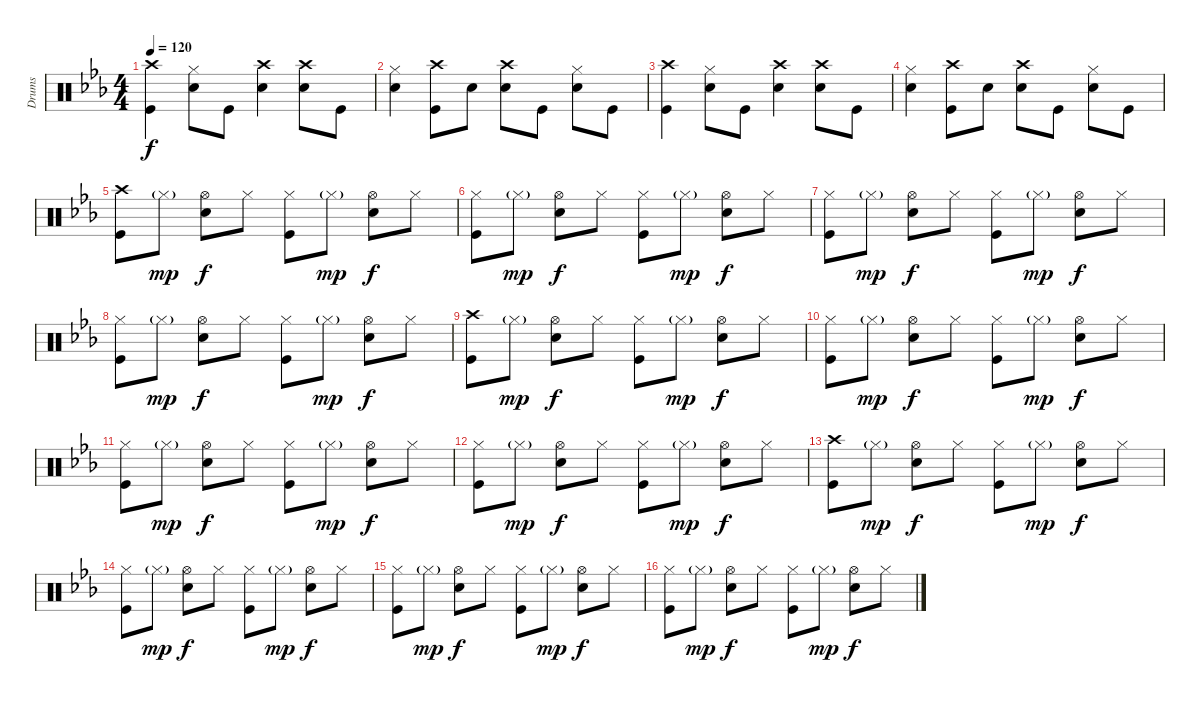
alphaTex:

\track ("Drums" "Drums") {instrument percussion}
\staff {score}
\articulation defaults
\ts (4 4)
\tempo 120
\clef neutral
\ks eb
("Crash high (hit)" "Kick (hit)").4{dy f} ("Hi-Hat (closed)" "Electric Snare (hit)").8 "Kick (hit)".8 ("Crash high (hit)" "Electric Snare (hit)").4 ("Crash high (hit)" "Electric Snare (hit)").8 "Kick (hit)".8 |
("Hi-Hat (closed)" "Electric Snare (hit)").4 ("Crash high (hit)" "Kick (hit)").8 "Electric Snare (hit)".8 ("Crash high (hit)" "Electric Snare (hit)").8 "Kick (hit)".8 ("Hi-Hat (closed)" "Electric Snare (hit)").8 "Kick (hit)".8 |
("Crash high (hit)" "Kick (hit)").4 ("Hi-Hat (closed)" "Electric Snare (hit)").8 "Kick (hit)".8 ("Crash high (hit)" "Electric Snare (hit)").4 ("Crash high (hit)" "Electric Snare (hit)").8 "Kick (hit)".8 |
("Hi-Hat (closed)" "Electric Snare (hit)").4 ("Crash high (hit)" "Kick (hit)").8 "Electric Snare (hit)".8 ("Crash high (hit)" "Electric Snare (hit)").8 "Kick (hit)".8 ("Hi-Hat (closed)" "Electric Snare (hit)").8 "Kick (hit)".8 |
("Crash high (hit)" "Kick (hit)").8 "Hi-Hat (closed)"{g}.8{dy mp} ("Hi-Hat (open)" "Electric Snare (hit)").8{dy f} "Hi-Hat (closed)".8 ("Hi-Hat (closed)" "Kick (hit)").8 "Hi-Hat (closed)"{g}.8{dy mp} ("Hi-Hat (open)" "Electric Snare (hit)").8{dy f} "Hi-Hat (closed)".8 |
("Hi-Hat (closed)" "Kick (hit)").8 "Hi-Hat (closed)"{g}.8{dy mp} ("Hi-Hat (open)" "Electric Snare (hit)").8{dy f} "Hi-Hat (closed)".8 ("Hi-Hat (closed)" "Kick (hit)").8 "Hi-Hat (closed)"{g}.8{dy mp} ("Hi-Hat (open)" "Electric Snare (hit)").8{dy f} "Hi-Hat (closed)".8 |
("Hi-Hat (closed)" "Kick (hit)").8 "Hi-Hat (closed)"{g}.8{dy mp} ("Hi-Hat (open)" "Electric Snare (hit)").8{dy f} "Hi-Hat (closed)".8 ("Hi-Hat (closed)" "Kick (hit)").8 "Hi-Hat (closed)"{g}.8{dy mp} ("Hi-Hat (open)" "Electric Snare (hit)").8{dy f} "Hi-Hat (closed)".8 |
("Hi-Hat (closed)" "Kick (hit)").8 "Hi-Hat (closed)"{g}.8{dy mp} ("Hi-Hat (open)" "Electric Snare (hit)").8{dy f} "Hi-Hat (closed)".8 ("Hi-Hat (closed)" "Kick (hit)").8 "Hi-Hat (closed)"{g}.8{dy mp} ("Hi-Hat (open)" "Electric Snare (hit)").8{dy f} "Hi-Hat (closed)".8 |
("Crash high (hit)" "Kick (hit)").8 "Hi-Hat (closed)"{g}.8{dy mp} ("Hi-Hat (open)" "Electric Snare (hit)").8{dy f} "Hi-Hat (closed)".8 ("Hi-Hat (closed)" "Kick (hit)").8 "Hi-Hat (closed)"{g}.8{dy mp} ("Hi-Hat (open)" "Electric Snare (hit)").8{dy f} "Hi-Hat (closed)".8 |
("Hi-Hat (closed)" "Kick (hit)").8 "Hi-Hat (closed)"{g}.8{dy mp} ("Hi-Hat (open)" "Electric Snare (hit)").8{dy f} "Hi-Hat (closed)".8 ("Hi-Hat (closed)" "Kick (hit)").8 "Hi-Hat (closed)"{g}.8{dy mp} ("Hi-Hat (open)" "Electric Snare (hit)").8{dy f} "Hi-Hat (closed)".8 |
("Hi-Hat (closed)" "Kick (hit)").8 "Hi-Hat (closed)"{g}.8{dy mp} ("Hi-Hat (open)" "Electric Snare (hit)").8{dy f} "Hi-Hat (closed)".8 ("Hi-Hat (closed)" "Kick (hit)").8 "Hi-Hat (closed)"{g}.8{dy mp} ("Hi-Hat (open)" "Electric Snare (hit)").8{dy f} "Hi-Hat (closed)".8 |
("Hi-Hat (closed)" "Kick (hit)").8 "Hi-Hat (closed)"{g}.8{dy mp} ("Hi-Hat (open)" "Electric Snare (hit)").8{dy f} "Hi-Hat (closed)".8 ("Hi-Hat (closed)" "Kick (hit)").8 "Hi-Hat (closed)"{g}.8{dy mp} ("Hi-Hat (open)" "Electric Snare (hit)").8{dy f} "Hi-Hat (closed)".8 |
("Crash high (hit)" "Kick (hit)").8 "Hi-Hat (closed)"{g}.8{dy mp} ("Hi-Hat (open)" "Electric Snare (hit)").8{dy f} "Hi-Hat (closed)".8 ("Hi-Hat (closed)" "Kick (hit)").8 "Hi-Hat (closed)"{g}.8{dy mp} ("Hi-Hat (open)" "Electric Snare (hit)").8{dy f} "Hi-Hat (closed)".8 |
("Hi-Hat (closed)" "Kick (hit)").8 "Hi-Hat (closed)"{g}.8{dy mp} ("Hi-Hat (open)" "Electric Snare (hit)").8{dy f} "Hi-Hat (closed)".8 ("Hi-Hat (closed)" "Kick (hit)").8 "Hi-Hat (closed)"{g}.8{dy mp} ("Hi-Hat (open)" "Electric Snare (hit)").8{dy f} "Hi-Hat (closed)".8 |
("Hi-Hat (closed)" "Kick (hit)").8 "Hi-Hat (closed)"{g}.8{dy mp} ("Hi-Hat (open)" "Electric Snare (hit)").8{dy f} "Hi-Hat (closed)".8 ("Hi-Hat (closed)" "Kick (hit)").8 "Hi-Hat (closed)"{g}.8{dy mp} ("Hi-Hat (open)" "Electric Snare (hit)").8{dy f} "Hi-Hat (closed)".8 |
("Hi-Hat (closed)" "Kick (hit)").8 "Hi-Hat (closed)"{g}.8{dy mp} ("Hi-Hat (open)" "Electric Snare (hit)").8{dy f} "Hi-Hat (closed)".8 ("Hi-Hat (closed)" "Kick (hit)").8 "Hi-Hat (closed)"{g}.8{dy mp} ("Hi-Hat (open)" "Electric Snare (hit)").8{dy f} "Hi-Hat (closed)".8
